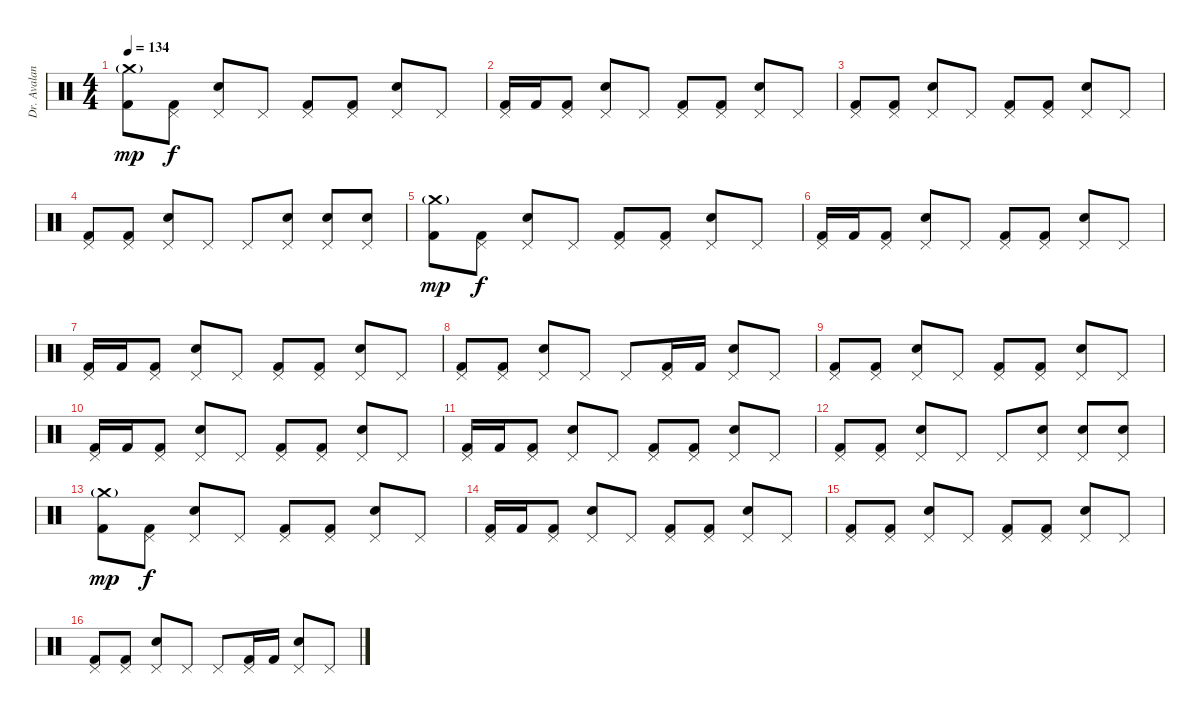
\track ("Dr. Avalanche" "Dr. Avalan") {instrument percussion}
\staff {score}
\articulation defaults
\ts (4 4)
\tempo 134
\clef neutral
\ks c
("Crash medium (hit)"{g} "Kick (hit) 2").8{dy mp} ("Pedal Hi-Hat (hit)" "Kick (hit) 2").8{dy f} ("Pedal Hi-Hat (hit)" "Electric Snare (hit)").8 "Pedal Hi-Hat (hit)".8 ("Pedal Hi-Hat (hit)" "Kick (hit) 2").8 ("Pedal Hi-Hat (hit)" "Kick (hit) 2").8 ("Pedal Hi-Hat (hit)" "Electric Snare (hit)").8 "Pedal Hi-Hat (hit)".8 |
("Pedal Hi-Hat (hit)" "Kick (hit) 2").16 "Kick (hit) 2".16 ("Pedal Hi-Hat (hit)" "Kick (hit) 2").8 ("Pedal Hi-Hat (hit)" "Electric Snare (hit)").8 "Pedal Hi-Hat (hit)".8 ("Pedal Hi-Hat (hit)" "Kick (hit) 2").8 ("Pedal Hi-Hat (hit)" "Kick (hit) 2").8 ("Pedal Hi-Hat (hit)" "Electric Snare (hit)").8 "Pedal Hi-Hat (hit)".8 |
("Pedal Hi-Hat (hit)" "Kick (hit) 2").8 ("Pedal Hi-Hat (hit)" "Kick (hit) 2").8 ("Pedal Hi-Hat (hit)" "Electric Snare (hit)").8 "Pedal Hi-Hat (hit)".8 ("Pedal Hi-Hat (hit)" "Kick (hit) 2").8 ("Pedal Hi-Hat (hit)" "Kick (hit) 2").8 ("Pedal Hi-Hat (hit)" "Electric Snare (hit)").8 "Pedal Hi-Hat (hit)".8 |
("Pedal Hi-Hat (hit)" "Kick (hit) 2").8 ("Pedal Hi-Hat (hit)" "Kick (hit) 2").8 ("Pedal Hi-Hat (hit)" "Electric Snare (hit)").8 "Pedal Hi-Hat (hit)".8 "Pedal Hi-Hat (hit)".8 ("Pedal Hi-Hat (hit)" "Electric Snare (hit)").8 ("Pedal Hi-Hat (hit)" "Electric Snare (hit)").8 ("Pedal Hi-Hat (hit)" "Electric Snare (hit)").8 |
("Crash medium (hit)"{g} "Kick (hit) 2").8{dy mp} ("Pedal Hi-Hat (hit)" "Kick (hit) 2").8{dy f} ("Pedal Hi-Hat (hit)" "Electric Snare (hit)").8 "Pedal Hi-Hat (hit)".8 ("Pedal Hi-Hat (hit)" "Kick (hit) 2").8 ("Pedal Hi-Hat (hit)" "Kick (hit) 2").8 ("Pedal Hi-Hat (hit)" "Electric Snare (hit)").8 "Pedal Hi-Hat (hit)".8 |
("Pedal Hi-Hat (hit)" "Kick (hit) 2").16 "Kick (hit) 2".16 ("Pedal Hi-Hat (hit)" "Kick (hit) 2").8 ("Pedal Hi-Hat (hit)" "Electric Snare (hit)").8 "Pedal Hi-Hat (hit)".8 ("Pedal Hi-Hat (hit)" "Kick (hit) 2").8 ("Pedal Hi-Hat (hit)" "Kick (hit) 2").8 ("Pedal Hi-Hat (hit)" "Electric Snare (hit)").8 "Pedal Hi-Hat (hit)".8 |
("Pedal Hi-Hat (hit)" "Kick (hit) 2").16 "Kick (hit) 2".16 ("Pedal Hi-Hat (hit)" "Kick (hit) 2").8 ("Pedal Hi-Hat (hit)" "Electric Snare (hit)").8 "Pedal Hi-Hat (hit)".8 ("Pedal Hi-Hat (hit)" "Kick (hit) 2").8 ("Pedal Hi-Hat (hit)" "Kick (hit) 2").8 ("Pedal Hi-Hat (hit)" "Electric Snare (hit)").8 "Pedal Hi-Hat (hit)".8 |
("Pedal Hi-Hat (hit)" "Kick (hit) 2").8 ("Pedal Hi-Hat (hit)" "Kick (hit) 2").8 ("Pedal Hi-Hat (hit)" "Electric Snare (hit)").8 "Pedal Hi-Hat (hit)".8 "Pedal Hi-Hat (hit)".8 ("Pedal Hi-Hat (hit)" "Kick (hit) 2").16 "Kick (hit) 2".16 ("Pedal Hi-Hat (hit)" "Electric Snare (hit)").8 "Pedal Hi-Hat (hit)".8 |
("Pedal Hi-Hat (hit)" "Kick (hit) 2").8 ("Pedal Hi-Hat (hit)" "Kick (hit) 2").8 ("Pedal Hi-Hat (hit)" "Electric Snare (hit)").8 "Pedal Hi-Hat (hit)".8 ("Pedal Hi-Hat (hit)" "Kick (hit) 2").8 ("Pedal Hi-Hat (hit)" "Kick (hit) 2").8 ("Pedal Hi-Hat (hit)" "Electric Snare (hit)").8 "Pedal Hi-Hat (hit)".8 |
("Pedal Hi-Hat (hit)" "Kick (hit) 2").16 "Kick (hit) 2".16 ("Pedal Hi-Hat (hit)" "Kick (hit) 2").8 ("Pedal Hi-Hat (hit)" "Electric Snare (hit)").8 "Pedal Hi-Hat (hit)".8 ("Pedal Hi-Hat (hit)" "Kick (hit) 2").8 ("Pedal Hi-Hat (hit)" "Kick (hit) 2").8 ("Pedal Hi-Hat (hit)" "Electric Snare (hit)").8 "Pedal Hi-Hat (hit)".8 |
("Pedal Hi-Hat (hit)" "Kick (hit) 2").16 "Kick (hit) 2".16 ("Pedal Hi-Hat (hit)" "Kick (hit) 2").8 ("Pedal Hi-Hat (hit)" "Electric Snare (hit)").8 "Pedal Hi-Hat (hit)".8 ("Pedal Hi-Hat (hit)" "Kick (hit) 2").8 ("Pedal Hi-Hat (hit)" "Kick (hit) 2").8 ("Pedal Hi-Hat (hit)" "Electric Snare (hit)").8 "Pedal Hi-Hat (hit)".8 |
("Pedal Hi-Hat (hit)" "Kick (hit) 2").8 ("Pedal Hi-Hat (hit)" "Kick (hit) 2").8 ("Pedal Hi-Hat (hit)" "Electric Snare (hit)").8 "Pedal Hi-Hat (hit)".8 "Pedal Hi-Hat (hit)".8 ("Pedal Hi-Hat (hit)" "Electric Snare (hit)").8 ("Pedal Hi-Hat (hit)" "Electric Snare (hit)").8 ("Pedal Hi-Hat (hit)" "Electric Snare (hit)").8 |
("Crash medium (hit)"{g} "Kick (hit) 2").8{dy mp} ("Pedal Hi-Hat (hit)" "Kick (hit) 2").8{dy f} ("Pedal Hi-Hat (hit)" "Electric Snare (hit)").8 "Pedal Hi-Hat (hit)".8 ("Pedal Hi-Hat (hit)" "Kick (hit) 2").8 ("Pedal Hi-Hat (hit)" "Kick (hit) 2").8 ("Pedal Hi-Hat (hit)" "Electric Snare (hit)").8 "Pedal Hi-Hat (hit)".8 |
("Pedal Hi-Hat (hit)" "Kick (hit) 2").16 "Kick (hit) 2".16 ("Pedal Hi-Hat (hit)" "Kick (hit) 2").8 ("Pedal Hi-Hat (hit)" "Electric Snare (hit)").8 "Pedal Hi-Hat (hit)".8 ("Pedal Hi-Hat (hit)" "Kick (hit) 2").8 ("Pedal Hi-Hat (hit)" "Kick (hit) 2").8 ("Pedal Hi-Hat (hit)" "Electric Snare (hit)").8 "Pedal Hi-Hat (hit)".8 |
("Pedal Hi-Hat (hit)" "Kick (hit) 2").8 ("Pedal Hi-Hat (hit)" "Kick (hit) 2").8 ("Pedal Hi-Hat (hit)" "Electric Snare (hit)").8 "Pedal Hi-Hat (hit)".8 ("Pedal Hi-Hat (hit)" "Kick (hit) 2").8 ("Pedal Hi-Hat (hit)" "Kick (hit) 2").8 ("Pedal Hi-Hat (hit)" "Electric Snare (hit)").8 "Pedal Hi-Hat (hit)".8 |
("Pedal Hi-Hat (hit)" "Kick (hit) 2").8 ("Pedal Hi-Hat (hit)" "Kick (hit) 2").8 ("Pedal Hi-Hat (hit)" "Electric Snare (hit)").8 "Pedal Hi-Hat (hit)".8 "Pedal Hi-Hat (hit)".8 ("Pedal Hi-Hat (hit)" "Kick (hit) 2").16 "Kick (hit) 2".16 ("Pedal Hi-Hat (hit)" "Electric Snare (hit)").8 "Pedal Hi-Hat (hit)".8
